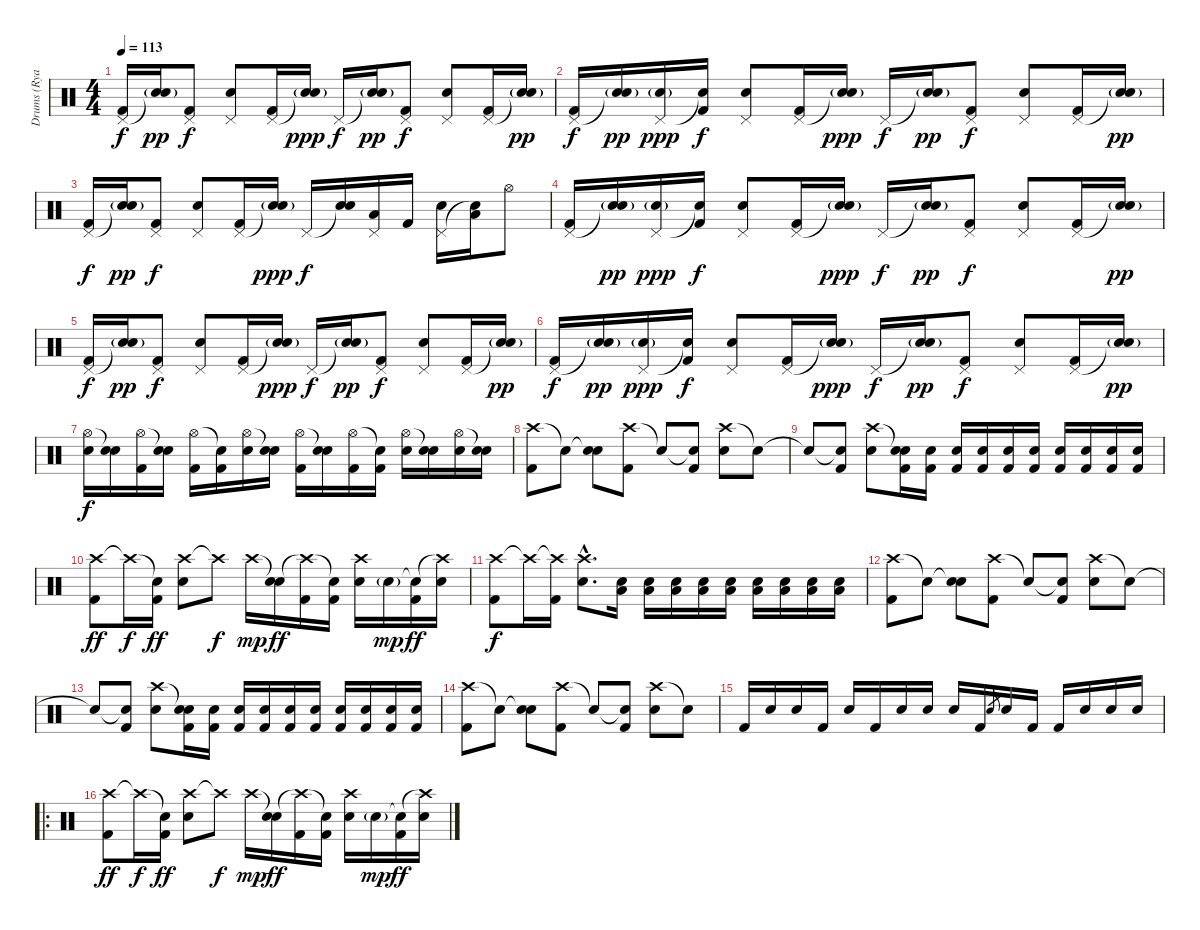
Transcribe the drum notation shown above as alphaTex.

\track ("Drums (Ryan \"Nik\" Vikedal)" "Drums (Rya") {instrument percussion}
\staff {score}
\articulation defaults
\ts (4 4)
\tempo 113
\clef neutral
\ks c
("Pedal Hi-Hat (hit)" "Kick (hit) 2").16{dy f} ("Snare (hit)"{t} "Electric Snare (hit)"{g}).16{dy pp} ("Pedal Hi-Hat (hit)" "Kick (hit) 2").8{dy f} ("Pedal Hi-Hat (hit)" "Electric Snare (hit)").8 ("Pedal Hi-Hat (hit)" "Kick (hit) 2").16 ("Snare (hit)"{t} "Electric Snare (hit)"{g}).16{dy ppp} "Pedal Hi-Hat (hit)".16{dy f} ("Snare (hit)"{t} "Electric Snare (hit)"{g}).16{dy pp} ("Pedal Hi-Hat (hit)" "Kick (hit) 2").8{dy f} ("Pedal Hi-Hat (hit)" "Electric Snare (hit)").8 ("Pedal Hi-Hat (hit)" "Kick (hit) 2").16 ("Snare (hit)"{t} "Electric Snare (hit)"{g}).16{dy pp} |
("Pedal Hi-Hat (hit)" "Kick (hit) 2").16{dy f} ("Snare (hit)"{t} "Electric Snare (hit)"{g}).16{dy pp} ("Pedal Hi-Hat (hit)" "Electric Snare (hit)"{g}).16{dy ppp} ("Snare (hit)"{t} "Kick (hit) 2").16{dy f} ("Pedal Hi-Hat (hit)" "Electric Snare (hit)").8 ("Pedal Hi-Hat (hit)" "Kick (hit) 2").16 ("Snare (hit)"{t} "Electric Snare (hit)"{g}).16{dy ppp} "Pedal Hi-Hat (hit)".16{dy f} ("Snare (hit)"{t} "Electric Snare (hit)"{g}).16{dy pp} ("Pedal Hi-Hat (hit)" "Kick (hit) 2").8{dy f} ("Pedal Hi-Hat (hit)" "Electric Snare (hit)").8 ("Pedal Hi-Hat (hit)" "Kick (hit) 2").16 ("Snare (hit)"{t} "Electric Snare (hit)"{g}).16{dy pp} |
("Pedal Hi-Hat (hit)" "Kick (hit) 2").16{dy f} ("Snare (hit)"{t} "Electric Snare (hit)"{g}).16{dy pp} ("Pedal Hi-Hat (hit)" "Kick (hit) 2").8{dy f} ("Pedal Hi-Hat (hit)" "Electric Snare (hit)").8 ("Pedal Hi-Hat (hit)" "Kick (hit) 2").16 ("Snare (hit)"{t} "Electric Snare (hit)"{g}).16{dy ppp} "Pedal Hi-Hat (hit)".16{dy f} ("Snare (hit)"{t} "Electric Snare (hit)").16 ("Pedal Hi-Hat (hit)" "Low Tom (hit)").16 "Kick (hit) 2".16 ("Pedal Hi-Hat (hit)" "Electric Snare (hit)").16 ("Snare (hit)"{t} "Low Tom (hit)").16 "Hi-Hat (open)".8 |
("Pedal Hi-Hat (hit)" "Kick (hit) 2").16 ("Snare (hit)"{t} "Electric Snare (hit)"{g}).16{dy pp} ("Pedal Hi-Hat (hit)" "Electric Snare (hit)"{g}).16{dy ppp} ("Snare (hit)"{t} "Kick (hit) 2").16{dy f} ("Pedal Hi-Hat (hit)" "Electric Snare (hit)").8 ("Pedal Hi-Hat (hit)" "Kick (hit) 2").16 ("Snare (hit)"{t} "Electric Snare (hit)"{g}).16{dy ppp} "Pedal Hi-Hat (hit)".16{dy f} ("Snare (hit)"{t} "Electric Snare (hit)"{g}).16{dy pp} ("Pedal Hi-Hat (hit)" "Kick (hit) 2").8{dy f} ("Pedal Hi-Hat (hit)" "Electric Snare (hit)").8 ("Pedal Hi-Hat (hit)" "Kick (hit) 2").16 ("Snare (hit)"{t} "Electric Snare (hit)"{g}).16{dy pp} |
("Pedal Hi-Hat (hit)" "Kick (hit) 2").16{dy f} ("Snare (hit)"{t} "Electric Snare (hit)"{g}).16{dy pp} ("Pedal Hi-Hat (hit)" "Kick (hit) 2").8{dy f} ("Pedal Hi-Hat (hit)" "Electric Snare (hit)").8 ("Pedal Hi-Hat (hit)" "Kick (hit) 2").16 ("Snare (hit)"{t} "Electric Snare (hit)"{g}).16{dy ppp} "Pedal Hi-Hat (hit)".16{dy f} ("Snare (hit)"{t} "Electric Snare (hit)"{g}).16{dy pp} ("Pedal Hi-Hat (hit)" "Kick (hit) 2").8{dy f} ("Pedal Hi-Hat (hit)" "Electric Snare (hit)").8 ("Pedal Hi-Hat (hit)" "Kick (hit) 2").16 ("Snare (hit)"{t} "Electric Snare (hit)"{g}).16{dy pp} |
("Pedal Hi-Hat (hit)" "Kick (hit) 2").16{dy f} ("Snare (hit)"{t} "Electric Snare (hit)"{g}).16{dy pp} ("Pedal Hi-Hat (hit)" "Electric Snare (hit)"{g}).16{dy ppp} ("Snare (hit)"{t} "Kick (hit) 2").16{dy f} ("Pedal Hi-Hat (hit)" "Electric Snare (hit)").8 ("Pedal Hi-Hat (hit)" "Kick (hit) 2").16 ("Snare (hit)"{t} "Electric Snare (hit)"{g}).16{dy ppp} "Pedal Hi-Hat (hit)".16{dy f} ("Snare (hit)"{t} "Electric Snare (hit)"{g}).16{dy pp} ("Pedal Hi-Hat (hit)" "Kick (hit) 2").8{dy f} ("Pedal Hi-Hat (hit)" "Electric Snare (hit)").8 ("Pedal Hi-Hat (hit)" "Kick (hit) 2").16 ("Snare (hit)"{t} "Electric Snare (hit)"{g}).16{dy pp} |
("Hi-Hat (open)" "Electric Snare (hit)").16{dy f} ("Snare (hit)"{t} "Electric Snare (hit)").16 ("Hi-Hat (open)" "Kick (hit) 2").16 ("Snare (hit)"{t} "Electric Snare (hit)").16 ("Hi-Hat (open)" "Kick (hit) 2").16 ("Snare (hit)"{t} "Kick (hit) 2").16 ("Hi-Hat (open)" "Electric Snare (hit)").16 ("Snare (hit)"{t} "Electric Snare (hit)").16 ("Hi-Hat (open)" "Kick (hit) 2").16 ("Snare (hit)"{t} "Electric Snare (hit)").16 ("Hi-Hat (open)" "Kick (hit) 2").16 ("Snare (hit)"{t} "Kick (hit) 2").16 ("Hi-Hat (open)" "Electric Snare (hit)").16 ("Snare (hit)"{t} "Electric Snare (hit)").16 ("Hi-Hat (open)" "Electric Snare (hit)").16 ("Snare (hit)"{t} "Electric Snare (hit)").16 |
("Crash high (hit)" "Kick (hit) 2").8 "Snare (hit)"{t}.8 ("Snare (hit)"{t} "Electric Snare (hit)").8 ("Crash high (hit)" "Kick (hit) 2").8 "Snare (hit)"{t}.8 ("Snare (hit)"{t} "Kick (hit) 2").8 ("Crash high (hit)" "Electric Snare (hit)").8 "Snare (hit)"{t}.8 |
"Snare (hit)"{t}.8 ("Snare (hit)"{t} "Kick (hit) 2").8 ("Crash high (hit)" "Electric Snare (hit)").8 ("Snare (hit)"{t} "Electric Snare (hit)" "Kick (hit) 2").16 ("Electric Snare (hit)" "Kick (hit) 2").16 ("Electric Snare (hit)" "Kick (hit) 2").16 ("Electric Snare (hit)" "Kick (hit) 2").16 ("Electric Snare (hit)" "Kick (hit) 2").16 ("Electric Snare (hit)" "Kick (hit) 2").16 ("Electric Snare (hit)" "Kick (hit) 2").16 ("Electric Snare (hit)" "Kick (hit) 2").16 ("Electric Snare (hit)" "Kick (hit) 2").16 ("Electric Snare (hit)" "Kick (hit) 2").16 |
("Crash high (hit)" "Kick (hit) 2").8{dy ff} "Crash high (hit)"{t}.16{dy f} ("Snare (hit)"{t} "Kick (hit) 2").16{dy ff} ("Crash high (hit)" "Electric Snare (hit)").8 "Crash high (hit)"{t}.8{dy f} "Crash high (hit)".16{dy mp} ("Snare (hit)"{t} "Electric Snare (hit)").16{dy ff} ("Crash high (hit)"{t} "Kick (hit) 2").16 ("Snare (hit)"{t} "Kick (hit) 2").16 ("Crash high (hit)" "Electric Snare (hit)").16 "Electric Snare (hit)"{g}.16{dy mp} ("Snare (hit)"{t} "Kick (hit) 2").16{dy ff} ("Crash high (hit)"{t} "Electric Snare (hit)").16 |
("Crash high (hit)" "Kick (hit) 2").8{dy f} "Crash high (hit)"{t}.16 ("Crash high (hit)"{t} "Kick (hit) 2").16 ("Crash high (hit)"{hac} "Electric Snare (hit)"{hac}).8{d} ("Low Tom (hit)" "Electric Snare (hit)").16 ("Low Tom (hit)" "Electric Snare (hit)").16 ("Low Tom (hit)" "Electric Snare (hit)").16 ("Low Tom (hit)" "Electric Snare (hit)").16 ("Low Tom (hit)" "Electric Snare (hit)").16 ("Low Tom (hit)" "Electric Snare (hit)").16 ("Low Tom (hit)" "Electric Snare (hit)").16 ("Low Tom (hit)" "Electric Snare (hit)").16 ("Low Tom (hit)" "Electric Snare (hit)").16 |
("Crash high (hit)" "Kick (hit) 2").8 "Snare (hit)"{t}.8 ("Snare (hit)"{t} "Electric Snare (hit)").8 ("Crash high (hit)" "Kick (hit) 2").8 "Snare (hit)"{t}.8 ("Snare (hit)"{t} "Kick (hit) 2").8 ("Crash high (hit)" "Electric Snare (hit)").8 "Snare (hit)"{t}.8 |
"Snare (hit)"{t}.8 ("Snare (hit)"{t} "Kick (hit) 2").8 ("Crash high (hit)" "Electric Snare (hit)").8 ("Snare (hit)"{t} "Electric Snare (hit)" "Kick (hit) 2").16 ("Electric Snare (hit)" "Kick (hit) 2").16 ("Electric Snare (hit)" "Kick (hit) 2").16 ("Electric Snare (hit)" "Kick (hit) 2").16 ("Electric Snare (hit)" "Kick (hit) 2").16 ("Electric Snare (hit)" "Kick (hit) 2").16 ("Electric Snare (hit)" "Kick (hit) 2").16 ("Electric Snare (hit)" "Kick (hit) 2").16 ("Electric Snare (hit)" "Kick (hit) 2").16 ("Electric Snare (hit)" "Kick (hit) 2").16 |
("Crash high (hit)" "Kick (hit) 2").8 "Snare (hit)"{t}.8 ("Snare (hit)"{t} "Electric Snare (hit)").8 ("Crash high (hit)" "Kick (hit) 2").8 "Snare (hit)"{t}.8 ("Snare (hit)"{t} "Kick (hit) 2").8 ("Crash high (hit)" "Electric Snare (hit)").8 "Snare (hit)"{t}.8 |
"Kick (hit) 2".16 "Electric Snare (hit)".16 "Electric Snare (hit)".16 "Kick (hit) 2".16 "Electric Snare (hit)".16 "Kick (hit) 2".16 "Electric Snare (hit)".16 "Electric Snare (hit)".16 "Electric Snare (hit)".16 "Kick (hit) 2".16 "Electric Snare (hit)".8{gr} "Electric Snare (hit)".16 "Kick (hit) 2".16 "Kick (hit) 2".16 "Electric Snare (hit)".16 "Electric Snare (hit)".16 "Electric Snare (hit)".16 |
\ro
("Crash high (hit)" "Kick (hit) 2").8{dy ff} "Crash high (hit)"{t}.16{dy f} ("Snare (hit)"{t} "Kick (hit) 2").16{dy ff} ("Crash high (hit)" "Electric Snare (hit)").8 "Crash high (hit)"{t}.8{dy f} "Crash high (hit)".16{dy mp} ("Snare (hit)"{t} "Electric Snare (hit)").16{dy ff} ("Crash high (hit)"{t} "Kick (hit) 2").16 ("Snare (hit)"{t} "Kick (hit) 2").16 ("Crash high (hit)" "Electric Snare (hit)").16 "Electric Snare (hit)"{g}.16{dy mp} ("Snare (hit)"{t} "Kick (hit) 2").16{dy ff} ("Crash high (hit)"{t} "Electric Snare (hit)").16
